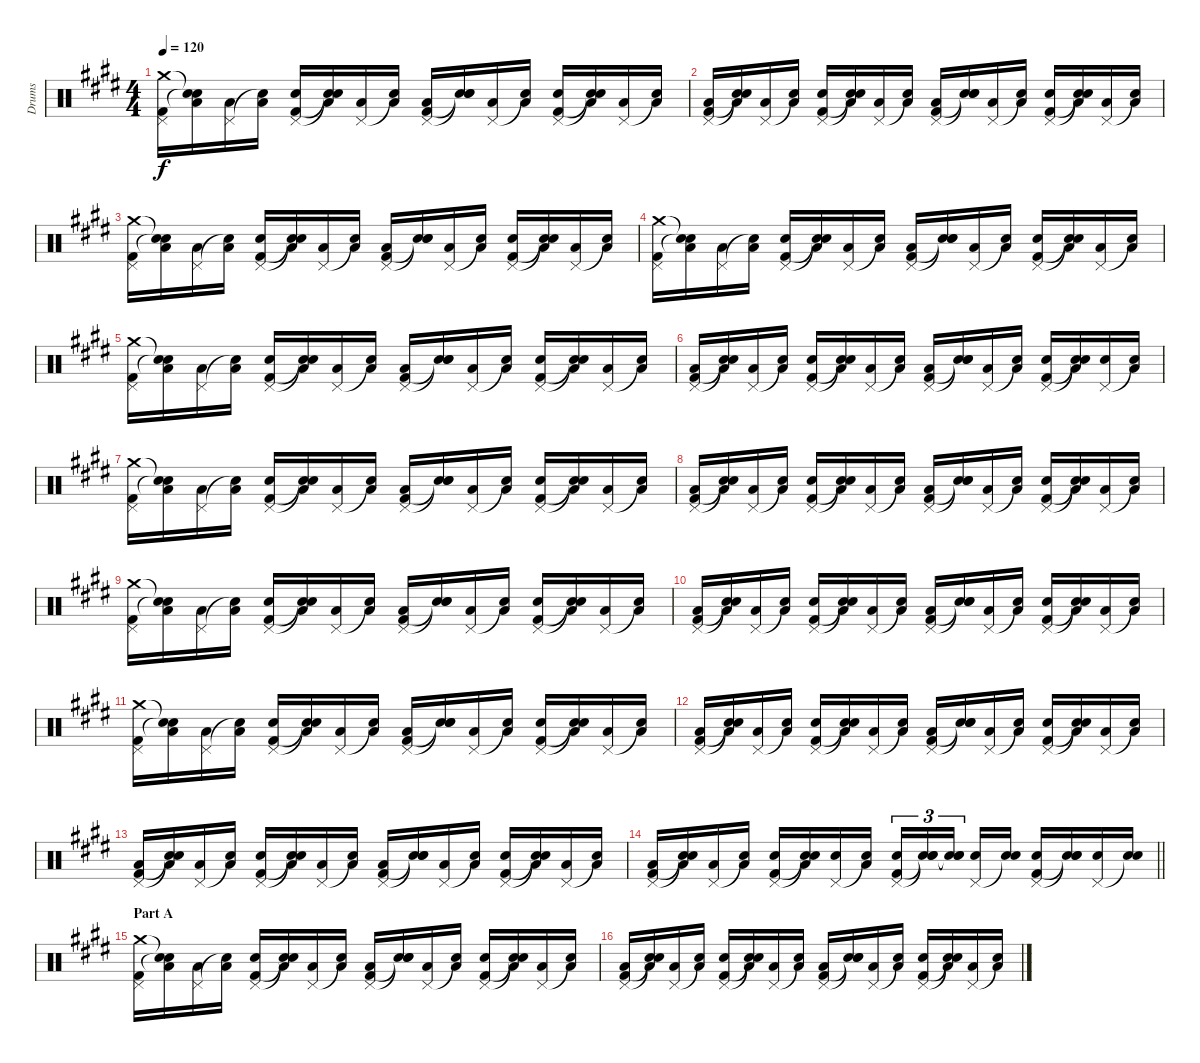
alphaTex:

\track ("Drums" "Drums") {instrument percussion}
\staff {score}
\articulation defaults
\ts (4 4)
\tempo 120
\clef neutral
\ks e
("Crash medium (hit)" "Pedal Hi-Hat (hit)" "Kick (hit) 2").16{dy f} ("Snare (hit)"{t} "Low Floor Tom (hit)" "Snare (hit)"{t}).16 ("Pedal Hi-Hat (hit)" "Low Floor Tom (hit)").16 ("Snare (hit)"{t} "Low Floor Tom (hit)").16 ("Pedal Hi-Hat (hit)" "Electric Snare (hit)" "Kick (hit) 2").16 ("Snare (hit)"{t} "Low Floor Tom (hit)" "Snare (hit)"{t}).16 ("Pedal Hi-Hat (hit)" "Low Floor Tom (hit)").16 ("Snare (hit)"{t} "Low Floor Tom (hit)").16 ("Pedal Hi-Hat (hit)" "Low Floor Tom (hit)" "Kick (hit) 2").16 ("Snare (hit)"{t} "Electric Snare (hit)" "Snare (hit)"{t}).16 ("Pedal Hi-Hat (hit)" "Low Floor Tom (hit)").16 ("Snare (hit)"{t} "Low Floor Tom (hit)").16 ("Pedal Hi-Hat (hit)" "Electric Snare (hit)" "Kick (hit) 2").16 ("Snare (hit)"{t} "Low Floor Tom (hit)" "Snare (hit)"{t}).16 ("Pedal Hi-Hat (hit)" "Low Floor Tom (hit)").16 ("Snare (hit)"{t} "Low Floor Tom (hit)").16 |
("Pedal Hi-Hat (hit)" "Low Floor Tom (hit)" "Kick (hit) 2").16 ("Snare (hit)"{t} "Low Floor Tom (hit)" "Snare (hit)"{t}).16 ("Pedal Hi-Hat (hit)" "Low Floor Tom (hit)").16 ("Snare (hit)"{t} "Low Floor Tom (hit)").16 ("Pedal Hi-Hat (hit)" "Electric Snare (hit)" "Kick (hit) 2").16 ("Snare (hit)"{t} "Low Floor Tom (hit)" "Snare (hit)"{t}).16 ("Pedal Hi-Hat (hit)" "Low Floor Tom (hit)").16 ("Snare (hit)"{t} "Low Floor Tom (hit)").16 ("Pedal Hi-Hat (hit)" "Low Floor Tom (hit)" "Kick (hit) 2").16 ("Snare (hit)"{t} "Electric Snare (hit)" "Snare (hit)"{t}).16 ("Pedal Hi-Hat (hit)" "Low Floor Tom (hit)").16 ("Snare (hit)"{t} "Low Floor Tom (hit)").16 ("Pedal Hi-Hat (hit)" "Electric Snare (hit)" "Kick (hit) 2").16 ("Snare (hit)"{t} "Low Floor Tom (hit)" "Snare (hit)"{t}).16 ("Pedal Hi-Hat (hit)" "Low Floor Tom (hit)").16 ("Snare (hit)"{t} "Low Floor Tom (hit)").16 |
("Crash medium (hit)" "Pedal Hi-Hat (hit)" "Kick (hit) 2").16 ("Snare (hit)"{t} "Low Floor Tom (hit)" "Snare (hit)"{t}).16 ("Pedal Hi-Hat (hit)" "Low Floor Tom (hit)").16 ("Snare (hit)"{t} "Low Floor Tom (hit)").16 ("Pedal Hi-Hat (hit)" "Electric Snare (hit)" "Kick (hit) 2").16 ("Snare (hit)"{t} "Low Floor Tom (hit)" "Snare (hit)"{t}).16 ("Pedal Hi-Hat (hit)" "Low Floor Tom (hit)").16 ("Snare (hit)"{t} "Low Floor Tom (hit)").16 ("Pedal Hi-Hat (hit)" "Low Floor Tom (hit)" "Kick (hit) 2").16 ("Snare (hit)"{t} "Electric Snare (hit)" "Snare (hit)"{t}).16 ("Pedal Hi-Hat (hit)" "Low Floor Tom (hit)").16 ("Snare (hit)"{t} "Low Floor Tom (hit)").16 ("Pedal Hi-Hat (hit)" "Electric Snare (hit)" "Kick (hit) 2").16 ("Snare (hit)"{t} "Low Floor Tom (hit)" "Snare (hit)"{t}).16 ("Pedal Hi-Hat (hit)" "Low Floor Tom (hit)").16 ("Snare (hit)"{t} "Low Floor Tom (hit)").16 |
("Crash medium (hit)" "Pedal Hi-Hat (hit)" "Kick (hit) 2").16 ("Snare (hit)"{t} "Low Floor Tom (hit)" "Snare (hit)"{t}).16 ("Pedal Hi-Hat (hit)" "Low Floor Tom (hit)").16 ("Snare (hit)"{t} "Low Floor Tom (hit)").16 ("Pedal Hi-Hat (hit)" "Electric Snare (hit)" "Kick (hit) 2").16 ("Snare (hit)"{t} "Low Floor Tom (hit)" "Snare (hit)"{t}).16 ("Pedal Hi-Hat (hit)" "Low Floor Tom (hit)").16 ("Snare (hit)"{t} "Low Floor Tom (hit)").16 ("Pedal Hi-Hat (hit)" "Low Floor Tom (hit)" "Kick (hit) 2").16 ("Snare (hit)"{t} "Electric Snare (hit)" "Snare (hit)"{t}).16 ("Pedal Hi-Hat (hit)" "Low Floor Tom (hit)").16 ("Snare (hit)"{t} "Low Floor Tom (hit)").16 ("Pedal Hi-Hat (hit)" "Electric Snare (hit)" "Kick (hit) 2").16 ("Snare (hit)"{t} "Low Floor Tom (hit)" "Snare (hit)"{t}).16 ("Pedal Hi-Hat (hit)" "Low Floor Tom (hit)").16 ("Snare (hit)"{t} "Low Floor Tom (hit)").16 |
("Crash medium (hit)" "Pedal Hi-Hat (hit)" "Kick (hit) 2").16 ("Snare (hit)"{t} "Low Floor Tom (hit)" "Snare (hit)"{t}).16 ("Pedal Hi-Hat (hit)" "Low Floor Tom (hit)").16 ("Snare (hit)"{t} "Low Floor Tom (hit)").16 ("Pedal Hi-Hat (hit)" "Electric Snare (hit)" "Kick (hit) 2").16 ("Snare (hit)"{t} "Low Floor Tom (hit)" "Snare (hit)"{t}).16 ("Pedal Hi-Hat (hit)" "Low Floor Tom (hit)").16 ("Snare (hit)"{t} "Low Floor Tom (hit)").16 ("Pedal Hi-Hat (hit)" "Low Floor Tom (hit)" "Kick (hit) 2").16 ("Snare (hit)"{t} "Electric Snare (hit)" "Snare (hit)"{t}).16 ("Pedal Hi-Hat (hit)" "Low Floor Tom (hit)").16 ("Snare (hit)"{t} "Low Floor Tom (hit)").16 ("Pedal Hi-Hat (hit)" "Electric Snare (hit)" "Kick (hit) 2").16 ("Snare (hit)"{t} "Low Floor Tom (hit)" "Snare (hit)"{t}).16 ("Pedal Hi-Hat (hit)" "Low Floor Tom (hit)").16 ("Snare (hit)"{t} "Low Floor Tom (hit)").16 |
("Pedal Hi-Hat (hit)" "Low Floor Tom (hit)" "Kick (hit) 2").16 ("Snare (hit)"{t} "Low Floor Tom (hit)" "Snare (hit)"{t}).16 ("Pedal Hi-Hat (hit)" "Low Floor Tom (hit)").16 ("Snare (hit)"{t} "Low Floor Tom (hit)").16 ("Pedal Hi-Hat (hit)" "Electric Snare (hit)" "Kick (hit) 2").16 ("Snare (hit)"{t} "Low Floor Tom (hit)" "Snare (hit)"{t}).16 ("Pedal Hi-Hat (hit)" "Low Floor Tom (hit)").16 ("Snare (hit)"{t} "Low Floor Tom (hit)").16 ("Pedal Hi-Hat (hit)" "Low Floor Tom (hit)" "Kick (hit) 2").16 ("Snare (hit)"{t} "Electric Snare (hit)" "Snare (hit)"{t}).16 ("Pedal Hi-Hat (hit)" "Low Floor Tom (hit)").16 ("Snare (hit)"{t} "Low Floor Tom (hit)").16 ("Pedal Hi-Hat (hit)" "Electric Snare (hit)" "Kick (hit) 2").16 ("Snare (hit)"{t} "Low Floor Tom (hit)" "Snare (hit)"{t}).16 ("Pedal Hi-Hat (hit)" "Electric Snare (hit)").16 ("Snare (hit)"{t} "Low Floor Tom (hit)").16 |
("Crash medium (hit)" "Pedal Hi-Hat (hit)" "Kick (hit) 2").16 ("Snare (hit)"{t} "Low Floor Tom (hit)" "Snare (hit)"{t}).16 ("Pedal Hi-Hat (hit)" "Low Floor Tom (hit)").16 ("Snare (hit)"{t} "Low Floor Tom (hit)").16 ("Pedal Hi-Hat (hit)" "Electric Snare (hit)" "Kick (hit) 2").16 ("Snare (hit)"{t} "Low Floor Tom (hit)" "Snare (hit)"{t}).16 ("Pedal Hi-Hat (hit)" "Low Floor Tom (hit)").16 ("Snare (hit)"{t} "Low Floor Tom (hit)").16 ("Pedal Hi-Hat (hit)" "Low Floor Tom (hit)" "Kick (hit) 2").16 ("Snare (hit)"{t} "Electric Snare (hit)" "Snare (hit)"{t}).16 ("Pedal Hi-Hat (hit)" "Low Floor Tom (hit)").16 ("Snare (hit)"{t} "Low Floor Tom (hit)").16 ("Pedal Hi-Hat (hit)" "Electric Snare (hit)" "Kick (hit) 2").16 ("Snare (hit)"{t} "Low Floor Tom (hit)" "Snare (hit)"{t}).16 ("Pedal Hi-Hat (hit)" "Low Floor Tom (hit)").16 ("Snare (hit)"{t} "Low Floor Tom (hit)").16 |
("Pedal Hi-Hat (hit)" "Low Floor Tom (hit)" "Kick (hit) 2").16 ("Snare (hit)"{t} "Low Floor Tom (hit)" "Snare (hit)"{t}).16 ("Pedal Hi-Hat (hit)" "Low Floor Tom (hit)").16 ("Snare (hit)"{t} "Low Floor Tom (hit)").16 ("Pedal Hi-Hat (hit)" "Electric Snare (hit)" "Kick (hit) 2").16 ("Snare (hit)"{t} "Low Floor Tom (hit)" "Snare (hit)"{t}).16 ("Pedal Hi-Hat (hit)" "Low Floor Tom (hit)").16 ("Snare (hit)"{t} "Low Floor Tom (hit)").16 ("Pedal Hi-Hat (hit)" "Low Floor Tom (hit)" "Kick (hit) 2").16 ("Snare (hit)"{t} "Electric Snare (hit)" "Snare (hit)"{t}).16 ("Pedal Hi-Hat (hit)" "Low Floor Tom (hit)").16 ("Snare (hit)"{t} "Low Floor Tom (hit)").16 ("Pedal Hi-Hat (hit)" "Electric Snare (hit)" "Kick (hit) 2").16 ("Snare (hit)"{t} "Low Floor Tom (hit)" "Snare (hit)"{t}).16 ("Pedal Hi-Hat (hit)" "Low Floor Tom (hit)").16 ("Snare (hit)"{t} "Low Floor Tom (hit)").16 |
("Crash medium (hit)" "Pedal Hi-Hat (hit)" "Kick (hit) 2").16 ("Snare (hit)"{t} "Low Floor Tom (hit)" "Snare (hit)"{t}).16 ("Pedal Hi-Hat (hit)" "Low Floor Tom (hit)").16 ("Snare (hit)"{t} "Low Floor Tom (hit)").16 ("Pedal Hi-Hat (hit)" "Electric Snare (hit)" "Kick (hit) 2").16 ("Snare (hit)"{t} "Low Floor Tom (hit)" "Snare (hit)"{t}).16 ("Pedal Hi-Hat (hit)" "Low Floor Tom (hit)").16 ("Snare (hit)"{t} "Low Floor Tom (hit)").16 ("Pedal Hi-Hat (hit)" "Low Floor Tom (hit)" "Kick (hit) 2").16 ("Snare (hit)"{t} "Electric Snare (hit)" "Snare (hit)"{t}).16 ("Pedal Hi-Hat (hit)" "Low Floor Tom (hit)").16 ("Snare (hit)"{t} "Low Floor Tom (hit)").16 ("Pedal Hi-Hat (hit)" "Electric Snare (hit)" "Kick (hit) 2").16 ("Snare (hit)"{t} "Low Floor Tom (hit)" "Snare (hit)"{t}).16 ("Pedal Hi-Hat (hit)" "Low Floor Tom (hit)").16 ("Snare (hit)"{t} "Low Floor Tom (hit)").16 |
("Pedal Hi-Hat (hit)" "Low Floor Tom (hit)" "Kick (hit) 2").16 ("Snare (hit)"{t} "Low Floor Tom (hit)" "Snare (hit)"{t}).16 ("Pedal Hi-Hat (hit)" "Low Floor Tom (hit)").16 ("Snare (hit)"{t} "Low Floor Tom (hit)").16 ("Pedal Hi-Hat (hit)" "Electric Snare (hit)" "Kick (hit) 2").16 ("Snare (hit)"{t} "Low Floor Tom (hit)" "Snare (hit)"{t}).16 ("Pedal Hi-Hat (hit)" "Low Floor Tom (hit)").16 ("Snare (hit)"{t} "Low Floor Tom (hit)").16 ("Pedal Hi-Hat (hit)" "Low Floor Tom (hit)" "Kick (hit) 2").16 ("Snare (hit)"{t} "Electric Snare (hit)" "Snare (hit)"{t}).16 ("Pedal Hi-Hat (hit)" "Low Floor Tom (hit)").16 ("Snare (hit)"{t} "Low Floor Tom (hit)").16 ("Pedal Hi-Hat (hit)" "Electric Snare (hit)" "Kick (hit) 2").16 ("Snare (hit)"{t} "Low Floor Tom (hit)" "Snare (hit)"{t}).16 ("Pedal Hi-Hat (hit)" "Low Floor Tom (hit)").16 ("Snare (hit)"{t} "Low Floor Tom (hit)").16 |
("Crash medium (hit)" "Pedal Hi-Hat (hit)" "Kick (hit) 2").16 ("Snare (hit)"{t} "Low Floor Tom (hit)" "Snare (hit)"{t}).16 ("Pedal Hi-Hat (hit)" "Low Floor Tom (hit)").16 ("Snare (hit)"{t} "Low Floor Tom (hit)").16 ("Pedal Hi-Hat (hit)" "Electric Snare (hit)" "Kick (hit) 2").16 ("Snare (hit)"{t} "Low Floor Tom (hit)" "Snare (hit)"{t}).16 ("Pedal Hi-Hat (hit)" "Low Floor Tom (hit)").16 ("Snare (hit)"{t} "Low Floor Tom (hit)").16 ("Pedal Hi-Hat (hit)" "Low Floor Tom (hit)" "Kick (hit) 2").16 ("Snare (hit)"{t} "Electric Snare (hit)" "Snare (hit)"{t}).16 ("Pedal Hi-Hat (hit)" "Low Floor Tom (hit)").16 ("Snare (hit)"{t} "Low Floor Tom (hit)").16 ("Pedal Hi-Hat (hit)" "Electric Snare (hit)" "Kick (hit) 2").16 ("Snare (hit)"{t} "Low Floor Tom (hit)" "Snare (hit)"{t}).16 ("Pedal Hi-Hat (hit)" "Low Floor Tom (hit)").16 ("Snare (hit)"{t} "Low Floor Tom (hit)").16 |
("Pedal Hi-Hat (hit)" "Low Floor Tom (hit)" "Kick (hit) 2").16 ("Snare (hit)"{t} "Low Floor Tom (hit)" "Snare (hit)"{t}).16 ("Pedal Hi-Hat (hit)" "Low Floor Tom (hit)").16 ("Snare (hit)"{t} "Low Floor Tom (hit)").16 ("Pedal Hi-Hat (hit)" "Electric Snare (hit)" "Kick (hit) 2").16 ("Snare (hit)"{t} "Low Floor Tom (hit)" "Snare (hit)"{t}).16 ("Pedal Hi-Hat (hit)" "Low Floor Tom (hit)").16 ("Snare (hit)"{t} "Low Floor Tom (hit)").16 ("Pedal Hi-Hat (hit)" "Low Floor Tom (hit)" "Kick (hit) 2").16 ("Snare (hit)"{t} "Electric Snare (hit)" "Snare (hit)"{t}).16 ("Pedal Hi-Hat (hit)" "Low Floor Tom (hit)").16 ("Snare (hit)"{t} "Low Floor Tom (hit)").16 ("Pedal Hi-Hat (hit)" "Electric Snare (hit)" "Kick (hit) 2").16 ("Snare (hit)"{t} "Low Floor Tom (hit)" "Snare (hit)"{t}).16 ("Pedal Hi-Hat (hit)" "Low Floor Tom (hit)").16 ("Snare (hit)"{t} "Low Floor Tom (hit)").16 |
("Pedal Hi-Hat (hit)" "Low Floor Tom (hit)" "Kick (hit) 2").16 ("Snare (hit)"{t} "Low Floor Tom (hit)" "Snare (hit)"{t}).16 ("Pedal Hi-Hat (hit)" "Low Floor Tom (hit)").16 ("Snare (hit)"{t} "Low Floor Tom (hit)").16 ("Pedal Hi-Hat (hit)" "Electric Snare (hit)" "Kick (hit) 2").16 ("Snare (hit)"{t} "Low Floor Tom (hit)" "Snare (hit)"{t}).16 ("Pedal Hi-Hat (hit)" "Low Floor Tom (hit)").16 ("Snare (hit)"{t} "Low Floor Tom (hit)").16 ("Pedal Hi-Hat (hit)" "Low Floor Tom (hit)" "Kick (hit) 2").16 ("Snare (hit)"{t} "Electric Snare (hit)" "Snare (hit)"{t}).16 ("Pedal Hi-Hat (hit)" "Low Floor Tom (hit)").16 ("Snare (hit)"{t} "Low Floor Tom (hit)").16 ("Pedal Hi-Hat (hit)" "Electric Snare (hit)" "Kick (hit) 2").16 ("Snare (hit)"{t} "Low Floor Tom (hit)" "Snare (hit)"{t}).16 ("Pedal Hi-Hat (hit)" "Low Floor Tom (hit)").16 ("Snare (hit)"{t} "Low Floor Tom (hit)").16 |
\barLineRight lightlight
("Pedal Hi-Hat (hit)" "Low Floor Tom (hit)" "Kick (hit) 2").16 ("Snare (hit)"{t} "Low Floor Tom (hit)" "Snare (hit)"{t}).16 ("Pedal Hi-Hat (hit)" "Low Floor Tom (hit)").16 ("Snare (hit)"{t} "Low Floor Tom (hit)").16 ("Pedal Hi-Hat (hit)" "Electric Snare (hit)" "Kick (hit) 2").16 ("Snare (hit)"{t} "Low Floor Tom (hit)" "Snare (hit)"{t}).16 ("Pedal Hi-Hat (hit)" "Electric Snare (hit)").16 ("Snare (hit)"{t} "Low Floor Tom (hit)").16 ("Pedal Hi-Hat (hit)" "Electric Snare (hit)" "Kick (hit) 2").16{tu (3 2)} ("Snare (hit)"{t} "Electric Snare (hit)" "Snare (hit)"{t}).16{tu (3 2)} ("Snare (hit)"{t} "Electric Snare (hit)" "Snare (hit)"{t}).16{tu (3 2)} ("Pedal Hi-Hat (hit)" "Electric Snare (hit)").16 ("Snare (hit)"{t} "Electric Snare (hit)").16 ("Pedal Hi-Hat (hit)" "Electric Snare (hit)" "Kick (hit) 2").16 ("Snare (hit)"{t} "Electric Snare (hit)" "Snare (hit)"{t}).16 ("Pedal Hi-Hat (hit)" "Electric Snare (hit)").16 ("Snare (hit)"{t} "Electric Snare (hit)").16 |
\section ("" "Part A")
("Crash medium (hit)" "Pedal Hi-Hat (hit)" "Kick (hit) 2").16 ("Snare (hit)"{t} "Low Floor Tom (hit)" "Snare (hit)"{t}).16 ("Pedal Hi-Hat (hit)" "Low Floor Tom (hit)").16 ("Snare (hit)"{t} "Low Floor Tom (hit)").16 ("Pedal Hi-Hat (hit)" "Electric Snare (hit)" "Kick (hit) 2").16 ("Snare (hit)"{t} "Low Floor Tom (hit)" "Snare (hit)"{t}).16 ("Pedal Hi-Hat (hit)" "Low Floor Tom (hit)").16 ("Snare (hit)"{t} "Low Floor Tom (hit)").16 ("Pedal Hi-Hat (hit)" "Low Floor Tom (hit)" "Kick (hit) 2").16 ("Snare (hit)"{t} "Electric Snare (hit)" "Snare (hit)"{t}).16 ("Pedal Hi-Hat (hit)" "Low Floor Tom (hit)").16 ("Snare (hit)"{t} "Low Floor Tom (hit)").16 ("Pedal Hi-Hat (hit)" "Electric Snare (hit)" "Kick (hit) 2").16 ("Snare (hit)"{t} "Low Floor Tom (hit)" "Snare (hit)"{t}).16 ("Pedal Hi-Hat (hit)" "Low Floor Tom (hit)").16 ("Snare (hit)"{t} "Low Floor Tom (hit)").16 |
("Pedal Hi-Hat (hit)" "Low Floor Tom (hit)" "Kick (hit) 2").16 ("Snare (hit)"{t} "Low Floor Tom (hit)" "Snare (hit)"{t}).16 ("Pedal Hi-Hat (hit)" "Low Floor Tom (hit)").16 ("Snare (hit)"{t} "Low Floor Tom (hit)").16 ("Pedal Hi-Hat (hit)" "Electric Snare (hit)" "Kick (hit) 2").16 ("Snare (hit)"{t} "Low Floor Tom (hit)" "Snare (hit)"{t}).16 ("Pedal Hi-Hat (hit)" "Low Floor Tom (hit)").16 ("Snare (hit)"{t} "Low Floor Tom (hit)").16 ("Pedal Hi-Hat (hit)" "Low Floor Tom (hit)" "Kick (hit) 2").16 ("Snare (hit)"{t} "Electric Snare (hit)" "Snare (hit)"{t}).16 ("Pedal Hi-Hat (hit)" "Low Floor Tom (hit)").16 ("Snare (hit)"{t} "Low Floor Tom (hit)").16 ("Pedal Hi-Hat (hit)" "Electric Snare (hit)" "Kick (hit) 2").16 ("Snare (hit)"{t} "Low Floor Tom (hit)" "Snare (hit)"{t}).16 ("Pedal Hi-Hat (hit)" "Low Floor Tom (hit)").16 ("Snare (hit)"{t} "Low Floor Tom (hit)").16
